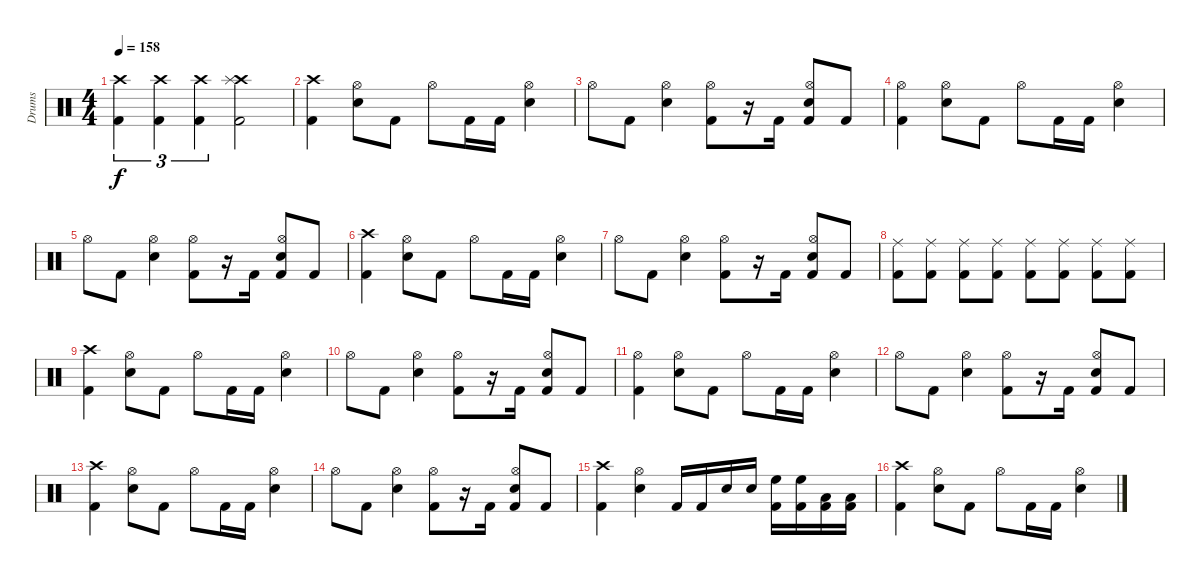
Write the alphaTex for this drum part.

\track ("Drums" "Drums") {instrument percussion}
\staff {score}
\articulation defaults
\ts (4 4)
\tempo 158
\clef neutral
\ks c
("Crash high (hit)" "Kick (hit) 2").4{tu (3 2) dy f} ("Crash high (hit)" "Kick (hit) 2").4{tu (3 2)} ("Crash high (hit)" "Kick (hit) 2").4{tu (3 2)} ("Crash high (hit)" "Splash (hit)" "Kick (hit) 2").2 |
("Crash high (hit)" "Kick (hit) 2").4 ("Hi-Hat (open)" "Snare (hit) 2").8 "Kick (hit) 2".8 "Hi-Hat (open)".8 "Kick (hit) 2".16 "Kick (hit) 2".16 ("Hi-Hat (open)" "Snare (hit) 2").4 |
"Hi-Hat (open)".8 "Kick (hit) 2".8 ("Hi-Hat (open)" "Snare (hit) 2").4 ("Hi-Hat (open)" "Kick (hit) 2").8 r.16 "Kick (hit) 2".16 ("Hi-Hat (open)" "Snare (hit) 2" "Kick (hit) 2").8 "Kick (hit) 2".8 |
("Hi-Hat (open)" "Kick (hit) 2").4 ("Hi-Hat (open)" "Snare (hit) 2").8 "Kick (hit) 2".8 "Hi-Hat (open)".8 "Kick (hit) 2".16 "Kick (hit) 2".16 ("Hi-Hat (open)" "Snare (hit) 2").4 |
"Hi-Hat (open)".8 "Kick (hit) 2".8 ("Hi-Hat (open)" "Snare (hit) 2").4 ("Hi-Hat (open)" "Kick (hit) 2").8 r.16 "Kick (hit) 2".16 ("Hi-Hat (open)" "Snare (hit) 2" "Kick (hit) 2").8 "Kick (hit) 2".8 |
("Crash high (hit)" "Kick (hit) 2").4 ("Hi-Hat (open)" "Snare (hit) 2").8 "Kick (hit) 2".8 "Hi-Hat (open)".8 "Kick (hit) 2".16 "Kick (hit) 2".16 ("Hi-Hat (open)" "Snare (hit) 2").4 |
"Hi-Hat (open)".8 "Kick (hit) 2".8 ("Hi-Hat (open)" "Snare (hit) 2").4 ("Hi-Hat (open)" "Kick (hit) 2").8 r.16 "Kick (hit) 2".16 ("Hi-Hat (open)" "Snare (hit) 2" "Kick (hit) 2").8 "Kick (hit) 2".8 |
("Ride (middle)" "Kick (hit) 2").8 ("Ride (middle)" "Kick (hit) 2").8 ("Ride (middle)" "Kick (hit) 2").8 ("Ride (middle)" "Kick (hit) 2").8 ("Ride (middle)" "Kick (hit) 2").8 ("Ride (middle)" "Kick (hit) 2").8 ("Ride (middle)" "Kick (hit) 2").8 ("Ride (middle)" "Kick (hit) 2").8 |
("Crash high (hit)" "Kick (hit) 2").4 ("Hi-Hat (open)" "Snare (hit) 2").8 "Kick (hit) 2".8 "Hi-Hat (open)".8 "Kick (hit) 2".16 "Kick (hit) 2".16 ("Hi-Hat (open)" "Snare (hit) 2").4 |
"Hi-Hat (open)".8 "Kick (hit) 2".8 ("Hi-Hat (open)" "Snare (hit) 2").4 ("Hi-Hat (open)" "Kick (hit) 2").8 r.16 "Kick (hit) 2".16 ("Hi-Hat (open)" "Snare (hit) 2" "Kick (hit) 2").8 "Kick (hit) 2".8 |
("Hi-Hat (open)" "Kick (hit) 2").4 ("Hi-Hat (open)" "Snare (hit) 2").8 "Kick (hit) 2".8 "Hi-Hat (open)".8 "Kick (hit) 2".16 "Kick (hit) 2".16 ("Hi-Hat (open)" "Snare (hit) 2").4 |
"Hi-Hat (open)".8 "Kick (hit) 2".8 ("Hi-Hat (open)" "Snare (hit) 2").4 ("Hi-Hat (open)" "Kick (hit) 2").8 r.16 "Kick (hit) 2".16 ("Hi-Hat (open)" "Snare (hit) 2" "Kick (hit) 2").8 "Kick (hit) 2".8 |
("Crash high (hit)" "Kick (hit) 2").4 ("Hi-Hat (open)" "Snare (hit) 2").8 "Kick (hit) 2".8 "Hi-Hat (open)".8 "Kick (hit) 2".16 "Kick (hit) 2".16 ("Hi-Hat (open)" "Snare (hit) 2").4 |
"Hi-Hat (open)".8 "Kick (hit) 2".8 ("Hi-Hat (open)" "Snare (hit) 2").4 ("Hi-Hat (open)" "Kick (hit) 2").8 r.16 "Kick (hit) 2".16 ("Hi-Hat (open)" "Snare (hit) 2" "Kick (hit) 2").8 "Kick (hit) 2".8 |
("Crash high (hit)" "Kick (hit) 2").4 ("Hi-Hat (open)" "Snare (hit) 2").4 "Kick (hit) 2".16 "Kick (hit) 2".16 "Snare (hit) 2".16 "Snare (hit) 2".16 ("High Floor Tom (hit)" "Kick (hit) 2").16 ("High Floor Tom (hit)" "Kick (hit) 2").16 ("Low Tom (hit)" "Kick (hit) 2").16 ("Low Tom (hit)" "Kick (hit) 2").16 |
("Crash high (hit)" "Kick (hit) 2").4 ("Hi-Hat (open)" "Snare (hit) 2").8 "Kick (hit) 2".8 "Hi-Hat (open)".8 "Kick (hit) 2".16 "Kick (hit) 2".16 ("Hi-Hat (open)" "Snare (hit) 2").4
